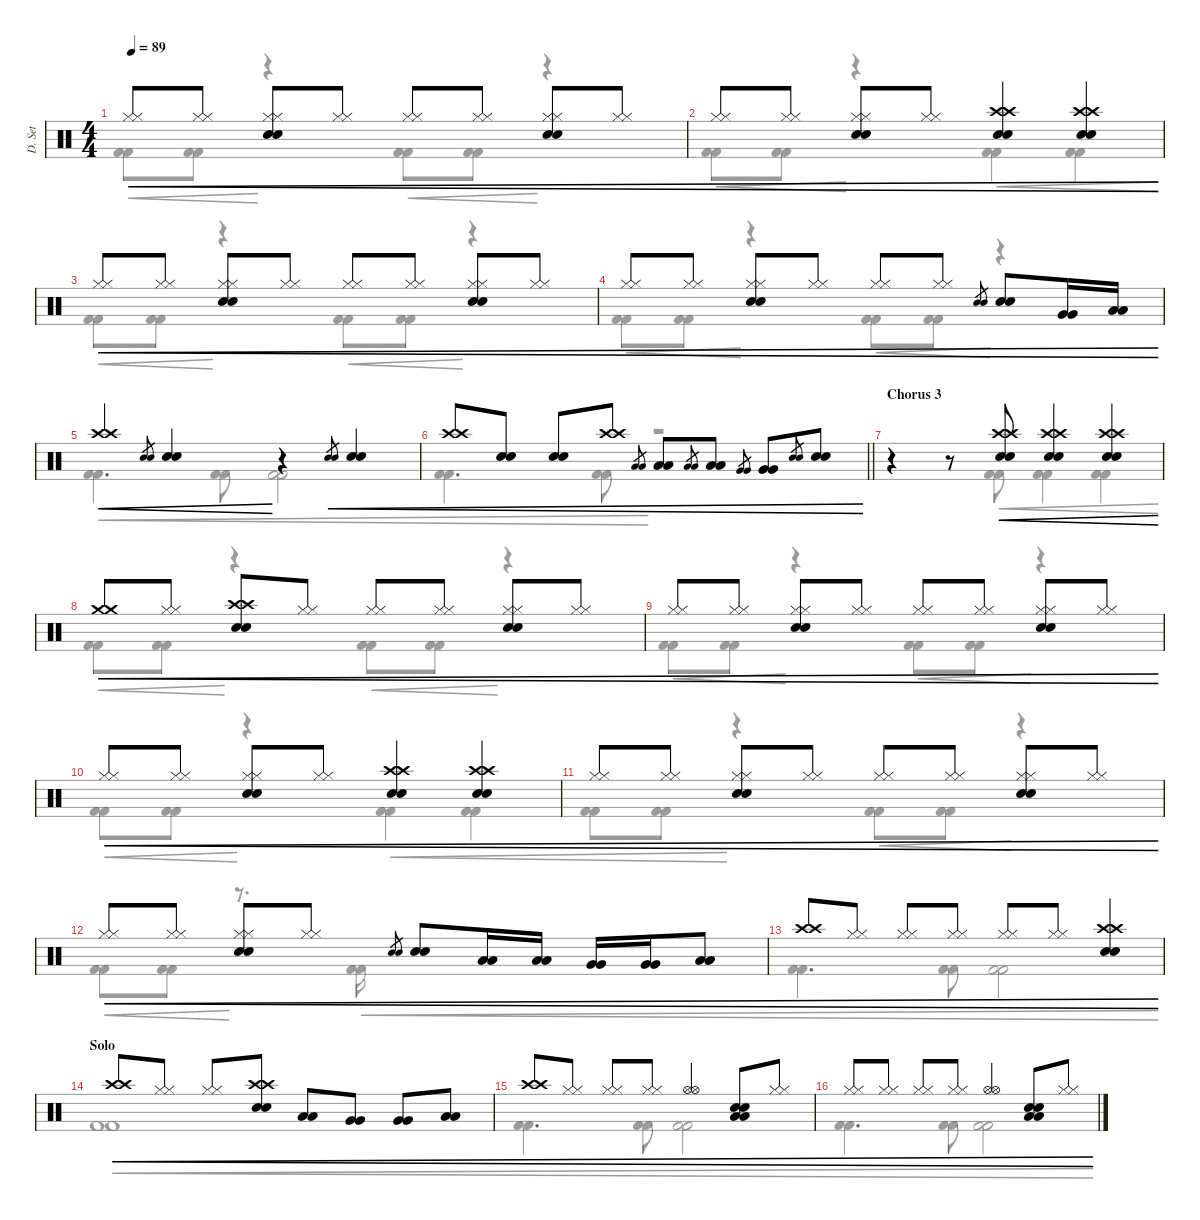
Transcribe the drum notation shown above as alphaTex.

\defaultSystemsLayout 4
\hideDynamics
\bracketExtendMode groupsimilarinstruments
\otherSystemsTrackNameOrientation horizontal
\track ("Drumset" "D. Set") {instrument percussion}
\staff {score}
\articulation defaults
\voice
\ts (4 4)
\tempo 89
\clef neutral
\ks c
("Hi-Hat (closed)" "Hi-Hat (closed)").8{cre dy f beam Up} ("Hi-Hat (closed)" "Hi-Hat (closed)").8{cre beam Up} ("Electric Snare (hit)" "Electric Snare (hit)" "Hi-Hat (closed)" "Hi-Hat (closed)").8{cre beam Up} ("Hi-Hat (closed)" "Hi-Hat (closed)").8{cre beam Up} ("Hi-Hat (closed)" "Hi-Hat (closed)").8{cre beam Up} ("Hi-Hat (closed)" "Hi-Hat (closed)").8{cre beam Up} ("Electric Snare (hit)" "Electric Snare (hit)" "Hi-Hat (closed)" "Hi-Hat (closed)").8{cre beam Up} ("Hi-Hat (closed)" "Hi-Hat (closed)").8{cre beam Up} |
("Hi-Hat (closed)" "Hi-Hat (closed)").8{cre beam Up} ("Hi-Hat (closed)" "Hi-Hat (closed)").8{cre beam Up} ("Electric Snare (hit)" "Electric Snare (hit)" "Hi-Hat (closed)" "Hi-Hat (closed)").8{cre beam Up} ("Hi-Hat (closed)" "Hi-Hat (closed)").8{cre beam Up} ("Electric Snare (hit)" "Electric Snare (hit)" "Crash high (hit)" "Crash high (hit)").4{cre beam Up} ("Electric Snare (hit)" "Electric Snare (hit)" "Crash high (hit)" "Crash high (hit)").4{cre beam Up} |
("Hi-Hat (closed)" "Hi-Hat (closed)").8{cre beam Up} ("Hi-Hat (closed)" "Hi-Hat (closed)").8{cre beam Up} ("Electric Snare (hit)" "Electric Snare (hit)" "Hi-Hat (closed)" "Hi-Hat (closed)").8{cre beam Up} ("Hi-Hat (closed)" "Hi-Hat (closed)").8{cre beam Up} ("Hi-Hat (closed)" "Hi-Hat (closed)").8{cre beam Up} ("Hi-Hat (closed)" "Hi-Hat (closed)").8{cre beam Up} ("Electric Snare (hit)" "Electric Snare (hit)" "Hi-Hat (closed)" "Hi-Hat (closed)").8{cre beam Up} ("Hi-Hat (closed)" "Hi-Hat (closed)").8{cre beam Up} |
("Hi-Hat (closed)" "Hi-Hat (closed)").8{cre beam Up} ("Hi-Hat (closed)" "Hi-Hat (closed)").8{cre beam Up} ("Electric Snare (hit)" "Electric Snare (hit)" "Hi-Hat (closed)" "Hi-Hat (closed)").8{cre beam Up} ("Hi-Hat (closed)" "Hi-Hat (closed)").8{cre beam Up} ("Hi-Hat (closed)" "Hi-Hat (closed)").8{cre beam Up} ("Hi-Hat (closed)" "Hi-Hat (closed)").8{cre beam Up} ("Electric Snare (hit)" "Electric Snare (hit)").8{gr cre beam Up} ("Electric Snare (hit)" "Electric Snare (hit)").8{cre beam Up} ("Very Low Tom (hit)" "Very Low Tom (hit)").16{cre beam Up} ("Low Tom (hit)" "Low Tom (hit)").16{cre beam Up} |
("Crash high (hit)" "Crash high (hit)").4{cre beam Up} ("Electric Snare (hit)" "Electric Snare (hit)").8{gr cre beam Up} ("Electric Snare (hit)" "Electric Snare (hit)").4{cre beam Up} r.4 ("Electric Snare (hit)" "Electric Snare (hit)").8{gr cre beam Up} ("Electric Snare (hit)" "Electric Snare (hit)").4{cre beam Up} |
\barLineRight lightlight
("Crash high (hit)" "Crash high (hit)").8{cre beam Up} ("Electric Snare (hit)" "Electric Snare (hit)").8{cre beam Up} ("Electric Snare (hit)" "Electric Snare (hit)").8{cre beam Up} ("Crash high (hit)" "Crash high (hit)").8{cre beam Up} ("Low Tom (hit)" "Low Tom (hit)").8{gr cre beam Up} ("Low Tom (hit)" "Low Tom (hit)").8{cre beam Up} ("Low Tom (hit)" "Low Tom (hit)").8{gr cre beam Up} ("Low Tom (hit)" "Low Tom (hit)").8{cre beam Up} ("Very Low Tom (hit)" "Very Low Tom (hit)").8{gr cre beam Up} ("Very Low Tom (hit)" "Very Low Tom (hit)").8{cre beam Up} ("Electric Snare (hit)" "Electric Snare (hit)").8{gr cre beam Up} ("Electric Snare (hit)" "Electric Snare (hit)").8{cre beam Up} |
\section ("" "Chorus 3")
r.4 r.8 ("Electric Snare (hit)" "Electric Snare (hit)" "Crash high (hit)" "Crash high (hit)").8{cre beam Up} ("Electric Snare (hit)" "Electric Snare (hit)" "Crash high (hit)" "Crash high (hit)").4{cre beam Up} ("Electric Snare (hit)" "Electric Snare (hit)" "Crash high (hit)" "Crash high (hit)").4{cre beam Up} |
("Crash medium (hit)" "Crash medium (hit)").8{cre beam Up} ("Hi-Hat (closed)" "Hi-Hat (closed)").8{cre beam Up} ("Electric Snare (hit)" "Electric Snare (hit)" "Crash high (hit)" "Crash high (hit)").8{cre beam Up} ("Hi-Hat (closed)" "Hi-Hat (closed)").8{cre beam Up} ("Hi-Hat (closed)" "Hi-Hat (closed)").8{cre beam Up} ("Hi-Hat (closed)" "Hi-Hat (closed)").8{cre beam Up} ("Electric Snare (hit)" "Electric Snare (hit)" "Hi-Hat (closed)" "Hi-Hat (closed)").8{cre beam Up} ("Hi-Hat (closed)" "Hi-Hat (closed)").8{cre beam Up} |
("Hi-Hat (closed)" "Hi-Hat (closed)").8{cre beam Up} ("Hi-Hat (closed)" "Hi-Hat (closed)").8{cre beam Up} ("Electric Snare (hit)" "Electric Snare (hit)" "Hi-Hat (closed)" "Hi-Hat (closed)").8{cre beam Up} ("Hi-Hat (closed)" "Hi-Hat (closed)").8{cre beam Up} ("Hi-Hat (closed)" "Hi-Hat (closed)").8{cre beam Up} ("Hi-Hat (closed)" "Hi-Hat (closed)").8{cre beam Up} ("Electric Snare (hit)" "Electric Snare (hit)" "Hi-Hat (closed)" "Hi-Hat (closed)").8{cre beam Up} ("Hi-Hat (closed)" "Hi-Hat (closed)").8{cre beam Up} |
("Hi-Hat (closed)" "Hi-Hat (closed)").8{cre beam Up} ("Hi-Hat (closed)" "Hi-Hat (closed)").8{cre beam Up} ("Electric Snare (hit)" "Electric Snare (hit)" "Hi-Hat (closed)" "Hi-Hat (closed)").8{cre beam Up} ("Hi-Hat (closed)" "Hi-Hat (closed)").8{cre beam Up} ("Electric Snare (hit)" "Electric Snare (hit)" "Crash high (hit)" "Crash high (hit)").4{cre beam Up} ("Electric Snare (hit)" "Electric Snare (hit)" "Crash high (hit)" "Crash high (hit)").4{cre beam Up} |
("Hi-Hat (closed)" "Hi-Hat (closed)").8{cre beam Up} ("Hi-Hat (closed)" "Hi-Hat (closed)").8{cre beam Up} ("Electric Snare (hit)" "Electric Snare (hit)" "Hi-Hat (closed)" "Hi-Hat (closed)").8{cre beam Up} ("Hi-Hat (closed)" "Hi-Hat (closed)").8{cre beam Up} ("Hi-Hat (closed)" "Hi-Hat (closed)").8{cre beam Up} ("Hi-Hat (closed)" "Hi-Hat (closed)").8{cre beam Up} ("Electric Snare (hit)" "Electric Snare (hit)" "Hi-Hat (closed)" "Hi-Hat (closed)").8{cre beam Up} ("Hi-Hat (closed)" "Hi-Hat (closed)").8{cre beam Up} |
("Hi-Hat (closed)" "Hi-Hat (closed)").8{cre beam Up} ("Hi-Hat (closed)" "Hi-Hat (closed)").8{cre beam Up} ("Electric Snare (hit)" "Electric Snare (hit)" "Hi-Hat (closed)" "Hi-Hat (closed)").8{cre beam Up} ("Hi-Hat (closed)" "Hi-Hat (closed)").8{cre beam Up} ("Electric Snare (hit)" "Electric Snare (hit)").8{gr cre beam Up} ("Electric Snare (hit)" "Electric Snare (hit)").8{cre beam Up} ("Low Tom (hit)" "Low Tom (hit)").16{cre beam Up} ("Low Tom (hit)" "Low Tom (hit)").16{cre beam Up} ("Very Low Tom (hit)" "Very Low Tom (hit)").16{cre beam Up} ("Very Low Tom (hit)" "Very Low Tom (hit)").16{cre beam Up} ("Low Floor Tom (hit)" "Low Floor Tom (hit)").8{cre beam Up} |
("Crash high (hit)" "Crash high (hit)").8{cre beam Up} ("Hi-Hat (closed)" "Hi-Hat (closed)").8{cre beam Up} ("Hi-Hat (closed)" "Hi-Hat (closed)").8{cre beam Up} ("Hi-Hat (closed)" "Hi-Hat (closed)").8{cre beam Up} ("Hi-Hat (closed)" "Hi-Hat (closed)").8{cre beam Up} ("Hi-Hat (closed)" "Hi-Hat (closed)").8{cre beam Up} ("Electric Snare (hit)" "Electric Snare (hit)" "Crash high (hit)" "Crash high (hit)").4{cre beam Up} |
\section ("" "Solo")
("Crash high (hit)" "Crash high (hit)").8{cre beam Up} ("Hi-Hat (closed)" "Hi-Hat (closed)").8{cre beam Up} ("Hi-Hat (closed)" "Hi-Hat (closed)").8{cre beam Up} ("Electric Snare (hit)" "Electric Snare (hit)" "Crash high (hit)" "Crash high (hit)").8{cre beam Up} ("Low Tom (hit)" "Low Tom (hit)").8{cre beam Up} ("Very Low Tom (hit)" "Very Low Tom (hit)").8{cre beam Up} ("Very Low Tom (hit)" "Very Low Tom (hit)").8{cre beam Up} ("Low Floor Tom (hit)" "Low Floor Tom (hit)").8{cre beam Up} |
("Crash high (hit)" "Crash high (hit)").8{cre beam Up} ("Hi-Hat (closed)" "Hi-Hat (closed)").8{cre beam Up} ("Hi-Hat (closed)" "Hi-Hat (closed)").8{cre beam Up} ("Hi-Hat (closed)" "Hi-Hat (closed)").8{cre beam Up} ("Hi-Hat (open)" "Hi-Hat (open)").4{cre beam Up} ("Low Floor Tom (hit)" "Low Floor Tom (hit)" "Electric Snare (hit)" "Electric Snare (hit)").8{cre beam Up} ("Hi-Hat (closed)" "Hi-Hat (closed)").8{cre beam Up} |
("Hi-Hat (closed)" "Hi-Hat (closed)").8{cre beam Up} ("Hi-Hat (closed)" "Hi-Hat (closed)").8{cre beam Up} ("Hi-Hat (closed)" "Hi-Hat (closed)").8{cre beam Up} ("Hi-Hat (closed)" "Hi-Hat (closed)").8{cre beam Up} ("Hi-Hat (open)" "Hi-Hat (open)").4{cre beam Up} ("Low Floor Tom (hit)" "Low Floor Tom (hit)" "Electric Snare (hit)" "Electric Snare (hit)").8{cre beam Up} ("Hi-Hat (closed)" "Hi-Hat (closed)").8{cre beam Up}
\voice
\clef neutral
\ottava regular
\simile none
\ks c
("Kick (hit) 2" "Kick (hit) 2").8{cre dy f beam Down} ("Kick (hit) 2" "Kick (hit) 2").8{cre beam Down} r.4 ("Kick (hit) 2" "Kick (hit) 2").8{cre beam Down} ("Kick (hit) 2" "Kick (hit) 2").8{cre beam Down} r.4 |
("Kick (hit) 2" "Kick (hit) 2").8{cre beam Down} ("Kick (hit) 2" "Kick (hit) 2").8{cre beam Down} r.4 ("Kick (hit) 2" "Kick (hit) 2").4{cre beam Down} ("Kick (hit) 2" "Kick (hit) 2").4{cre beam Down} |
("Kick (hit) 2" "Kick (hit) 2").8{cre beam Down} ("Kick (hit) 2" "Kick (hit) 2").8{cre beam Down} r.4 ("Kick (hit) 2" "Kick (hit) 2").8{cre beam Down} ("Kick (hit) 2" "Kick (hit) 2").8{cre beam Down} r.4 |
("Kick (hit) 2" "Kick (hit) 2").8{cre beam Down} ("Kick (hit) 2" "Kick (hit) 2").8{cre beam Down} r.4 ("Kick (hit) 2" "Kick (hit) 2").8{cre beam Down} ("Kick (hit) 2" "Kick (hit) 2").8{cre beam Down} r.4 |
("Kick (hit) 2" "Kick (hit) 2").4{d cre beam Down} ("Kick (hit) 2" "Kick (hit) 2").8{cre beam Down} ("Kick (hit) 2" "Kick (hit) 2").2{cre beam Down} |
\barLineRight lightlight
("Kick (hit) 2" "Kick (hit) 2").4{d cre beam Down} ("Kick (hit) 2" "Kick (hit) 2").8{cre beam Down} r.2 |
r.4 r.8 ("Kick (hit) 2" "Kick (hit) 2").8{cre beam Down} ("Kick (hit) 2" "Kick (hit) 2").4{cre beam Down} ("Kick (hit) 2" "Kick (hit) 2").4{cre beam Down} |
("Kick (hit) 2" "Kick (hit) 2").8{cre beam Down} ("Kick (hit) 2" "Kick (hit) 2").8{cre beam Down} r.4 ("Kick (hit) 2" "Kick (hit) 2").8{cre beam Down} ("Kick (hit) 2" "Kick (hit) 2").8{cre beam Down} r.4 |
("Kick (hit) 2" "Kick (hit) 2").8{cre beam Down} ("Kick (hit) 2" "Kick (hit) 2").8{cre beam Down} r.4 ("Kick (hit) 2" "Kick (hit) 2").8{cre beam Down} ("Kick (hit) 2" "Kick (hit) 2").8{cre beam Down} r.4 |
("Kick (hit) 2" "Kick (hit) 2").8{cre beam Down} ("Kick (hit) 2" "Kick (hit) 2").8{cre beam Down} r.4 ("Kick (hit) 2" "Kick (hit) 2").4{cre beam Down} ("Kick (hit) 2" "Kick (hit) 2").4{cre beam Down} |
("Kick (hit) 2" "Kick (hit) 2").8{cre beam Down} ("Kick (hit) 2" "Kick (hit) 2").8{cre beam Down} r.4 ("Kick (hit) 2" "Kick (hit) 2").8{cre beam Down} ("Kick (hit) 2" "Kick (hit) 2").8{cre beam Down} r.4 |
("Kick (hit) 2" "Kick (hit) 2").8{cre beam Down} ("Kick (hit) 2" "Kick (hit) 2").8{cre beam Down} r.8{d} ("Kick (hit) 2" "Kick (hit) 2").16{cre beam Down} |
("Kick (hit) 2" "Kick (hit) 2").4{d cre beam Down} ("Kick (hit) 2" "Kick (hit) 2").8{cre beam Down} ("Kick (hit) 2" "Kick (hit) 2").2{cre beam Down} |
("Kick (hit) 2" "Kick (hit) 2").1{cre} |
("Kick (hit) 2" "Kick (hit) 2").4{d cre beam Down} ("Kick (hit) 2" "Kick (hit) 2").8{cre beam Down} ("Kick (hit) 2" "Kick (hit) 2").2{cre beam Down} |
("Kick (hit) 2" "Kick (hit) 2").4{d cre beam Down} ("Kick (hit) 2" "Kick (hit) 2").8{cre beam Down} ("Kick (hit) 2" "Kick (hit) 2").2{cre beam Down}
